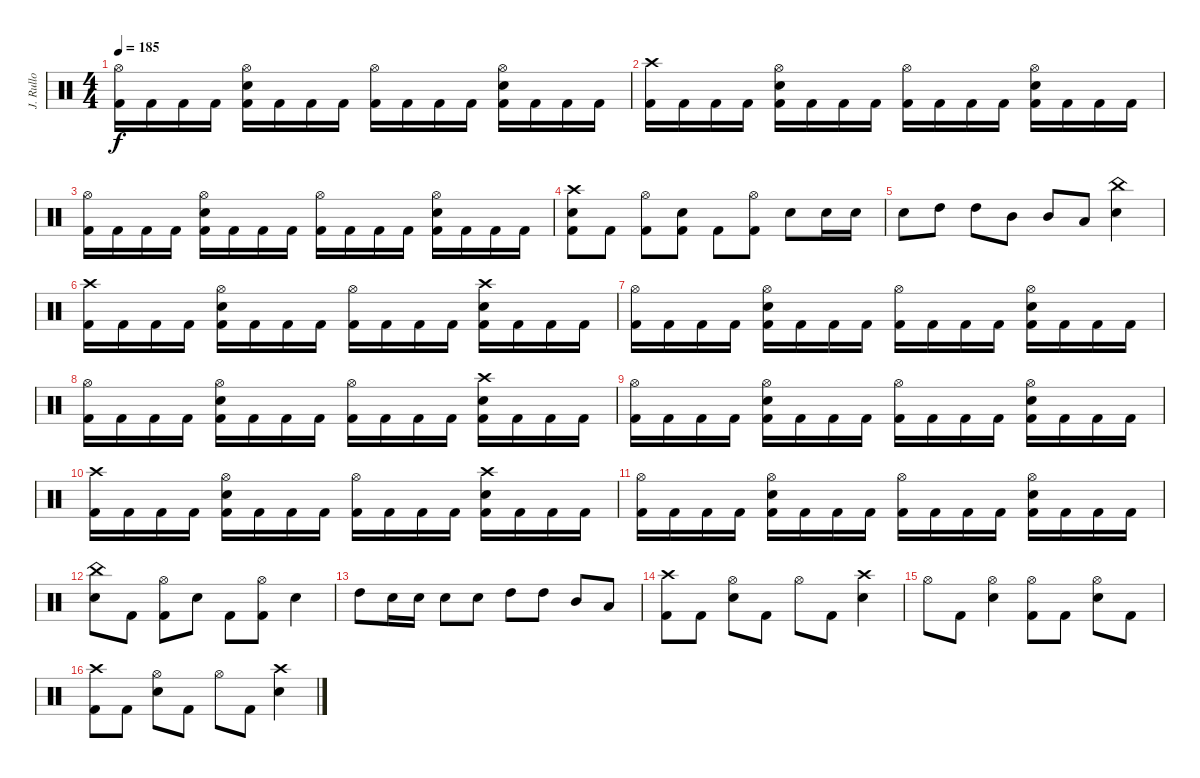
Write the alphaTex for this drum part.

\track ("J. Rullo" "J. Rullo") {instrument percussion}
\staff {score}
\articulation defaults
\ts (4 4)
\tempo 185
\clef neutral
\ks c
("Hi-Hat (open)" "Kick (hit) 2").16{dy f} "Kick (hit) 2".16 "Kick (hit) 2".16 "Kick (hit) 2".16 ("Hi-Hat (open)" "Snare (hit) 2" "Kick (hit) 2").16 "Kick (hit) 2".16 "Kick (hit) 2".16 "Kick (hit) 2".16 ("Hi-Hat (open)" "Kick (hit) 2").16 "Kick (hit) 2".16 "Kick (hit) 2".16 "Kick (hit) 2".16 ("Hi-Hat (open)" "Snare (hit) 2" "Kick (hit) 2").16 "Kick (hit) 2".16 "Kick (hit) 2".16 "Kick (hit) 2".16 |
("Crash high (hit)" "Kick (hit) 2").16 "Kick (hit) 2".16 "Kick (hit) 2".16 "Kick (hit) 2".16 ("Hi-Hat (open)" "Snare (hit) 2" "Kick (hit) 2").16 "Kick (hit) 2".16 "Kick (hit) 2".16 "Kick (hit) 2".16 ("Hi-Hat (open)" "Kick (hit) 2").16 "Kick (hit) 2".16 "Kick (hit) 2".16 "Kick (hit) 2".16 ("Hi-Hat (open)" "Snare (hit) 2" "Kick (hit) 2").16 "Kick (hit) 2".16 "Kick (hit) 2".16 "Kick (hit) 2".16 |
("Hi-Hat (open)" "Kick (hit) 2").16 "Kick (hit) 2".16 "Kick (hit) 2".16 "Kick (hit) 2".16 ("Hi-Hat (open)" "Snare (hit) 2" "Kick (hit) 2").16 "Kick (hit) 2".16 "Kick (hit) 2".16 "Kick (hit) 2".16 ("Hi-Hat (open)" "Kick (hit) 2").16 "Kick (hit) 2".16 "Kick (hit) 2".16 "Kick (hit) 2".16 ("Hi-Hat (open)" "Snare (hit) 2" "Kick (hit) 2").16 "Kick (hit) 2".16 "Kick (hit) 2".16 "Kick (hit) 2".16 |
("Crash high (hit)" "Snare (hit) 2" "Kick (hit) 2").8 "Kick (hit) 2".8 ("Hi-Hat (open)" "Kick (hit) 2").8 ("Snare (hit) 2" "Kick (hit) 2").8 "Kick (hit) 2".8 ("Hi-Hat (open)" "Kick (hit) 2").8 "Snare (hit) 2".8 "Snare (hit) 2".16 "Snare (hit) 2".16 |
"Snare (hit) 2".8 "High Tom (hit)".8 "High Tom (hit)".8 "Mid Tom (hit)".8 "Mid Tom (hit)".8 "Low Tom (hit)".8 ("China (hit)" "Snare (hit) 2").4 |
("Crash high (hit)" "Kick (hit) 2").16 "Kick (hit) 2".16 "Kick (hit) 2".16 "Kick (hit) 2".16 ("Hi-Hat (open)" "Snare (hit) 2" "Kick (hit) 2").16 "Kick (hit) 2".16 "Kick (hit) 2".16 "Kick (hit) 2".16 ("Hi-Hat (open)" "Kick (hit) 2").16 "Kick (hit) 2".16 "Kick (hit) 2".16 "Kick (hit) 2".16 ("Crash high (hit)" "Snare (hit) 2" "Kick (hit) 2").16 "Kick (hit) 2".16 "Kick (hit) 2".16 "Kick (hit) 2".16 |
("Hi-Hat (open)" "Kick (hit) 2").16 "Kick (hit) 2".16 "Kick (hit) 2".16 "Kick (hit) 2".16 ("Hi-Hat (open)" "Snare (hit) 2" "Kick (hit) 2").16 "Kick (hit) 2".16 "Kick (hit) 2".16 "Kick (hit) 2".16 ("Hi-Hat (open)" "Kick (hit) 2").16 "Kick (hit) 2".16 "Kick (hit) 2".16 "Kick (hit) 2".16 ("Hi-Hat (open)" "Snare (hit) 2" "Kick (hit) 2").16 "Kick (hit) 2".16 "Kick (hit) 2".16 "Kick (hit) 2".16 |
("Hi-Hat (open)" "Kick (hit) 2").16 "Kick (hit) 2".16 "Kick (hit) 2".16 "Kick (hit) 2".16 ("Hi-Hat (open)" "Snare (hit) 2" "Kick (hit) 2").16 "Kick (hit) 2".16 "Kick (hit) 2".16 "Kick (hit) 2".16 ("Hi-Hat (open)" "Kick (hit) 2").16 "Kick (hit) 2".16 "Kick (hit) 2".16 "Kick (hit) 2".16 ("Crash high (hit)" "Snare (hit) 2" "Kick (hit) 2").16 "Kick (hit) 2".16 "Kick (hit) 2".16 "Kick (hit) 2".16 |
("Hi-Hat (open)" "Kick (hit) 2").16 "Kick (hit) 2".16 "Kick (hit) 2".16 "Kick (hit) 2".16 ("Hi-Hat (open)" "Snare (hit) 2" "Kick (hit) 2").16 "Kick (hit) 2".16 "Kick (hit) 2".16 "Kick (hit) 2".16 ("Hi-Hat (open)" "Kick (hit) 2").16 "Kick (hit) 2".16 "Kick (hit) 2".16 "Kick (hit) 2".16 ("Hi-Hat (open)" "Snare (hit) 2" "Kick (hit) 2").16 "Kick (hit) 2".16 "Kick (hit) 2".16 "Kick (hit) 2".16 |
("Crash high (hit)" "Kick (hit) 2").16 "Kick (hit) 2".16 "Kick (hit) 2".16 "Kick (hit) 2".16 ("Hi-Hat (open)" "Snare (hit) 2" "Kick (hit) 2").16 "Kick (hit) 2".16 "Kick (hit) 2".16 "Kick (hit) 2".16 ("Hi-Hat (open)" "Kick (hit) 2").16 "Kick (hit) 2".16 "Kick (hit) 2".16 "Kick (hit) 2".16 ("Crash high (hit)" "Snare (hit) 2" "Kick (hit) 2").16 "Kick (hit) 2".16 "Kick (hit) 2".16 "Kick (hit) 2".16 |
("Hi-Hat (open)" "Kick (hit) 2").16 "Kick (hit) 2".16 "Kick (hit) 2".16 "Kick (hit) 2".16 ("Hi-Hat (open)" "Snare (hit) 2" "Kick (hit) 2").16 "Kick (hit) 2".16 "Kick (hit) 2".16 "Kick (hit) 2".16 ("Hi-Hat (open)" "Kick (hit) 2").16 "Kick (hit) 2".16 "Kick (hit) 2".16 "Kick (hit) 2".16 ("Hi-Hat (open)" "Snare (hit) 2" "Kick (hit) 2").16 "Kick (hit) 2".16 "Kick (hit) 2".16 "Kick (hit) 2".16 |
("China (hit)" "Snare (hit) 2").8 "Kick (hit) 2".8 ("Hi-Hat (open)" "Kick (hit) 2").8 "Snare (hit) 2".8 "Kick (hit) 2".8 ("Hi-Hat (open)" "Kick (hit) 2").8 "Snare (hit) 2".4 |
"High Tom (hit)".8 "Snare (hit) 2".16 "Snare (hit) 2".16 "Snare (hit) 2".8 "Snare (hit) 2".8 "High Tom (hit)".8 "High Tom (hit)".8 "Mid Tom (hit)".8 "Low Tom (hit)".8 |
("Crash high (hit)" "Kick (hit) 2").8 "Kick (hit) 2".8 ("Hi-Hat (open)" "Snare (hit) 2").8 "Kick (hit) 2".8 "Hi-Hat (open)".8 "Kick (hit) 2".8 ("Crash high (hit)" "Snare (hit) 2").4 |
"Hi-Hat (open)".8 "Kick (hit) 2".8 ("Hi-Hat (open)" "Snare (hit) 2").4 ("Hi-Hat (open)" "Kick (hit) 2").8 "Kick (hit) 2".8 ("Hi-Hat (open)" "Snare (hit) 2").8 "Kick (hit) 2".8 |
("Crash high (hit)" "Kick (hit) 2").8 "Kick (hit) 2".8 ("Hi-Hat (open)" "Snare (hit) 2").8 "Kick (hit) 2".8 "Hi-Hat (open)".8 "Kick (hit) 2".8 ("Crash high (hit)" "Snare (hit) 2").4
